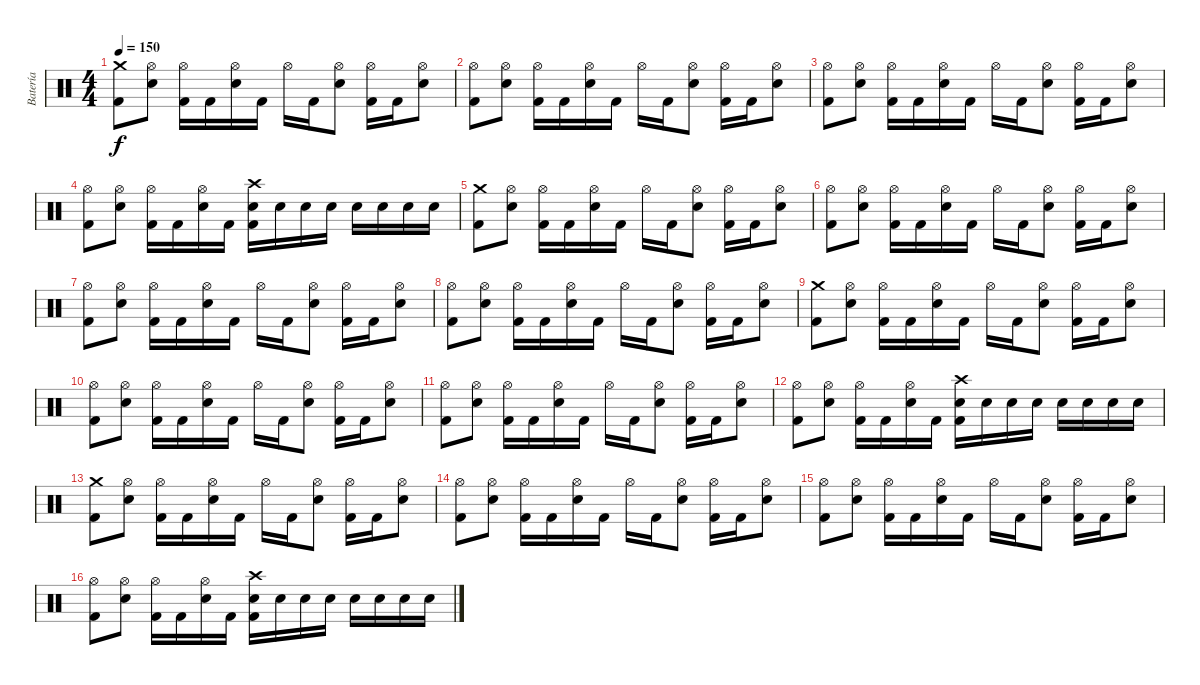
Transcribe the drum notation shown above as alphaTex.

\track ("Batería" "Batería") {instrument percussion}
\staff {score}
\articulation defaults
\ts (4 4)
\tempo 150
\clef neutral
\ks c
("Kick (hit) 2" "Crash medium (hit)").8{dy f} ("Snare (hit) 2" "Hi-Hat (open)").8 ("Kick (hit) 2" "Hi-Hat (open)").16 "Kick (hit) 2".16 ("Snare (hit) 2" "Hi-Hat (open)").16 "Kick (hit) 2".16 "Hi-Hat (open)".16 "Kick (hit) 2".16 ("Snare (hit) 2" "Hi-Hat (open)").8 ("Kick (hit) 2" "Hi-Hat (open)").16 "Kick (hit) 2".16 ("Snare (hit) 2" "Hi-Hat (open)").8 |
("Kick (hit) 2" "Hi-Hat (open)").8 ("Snare (hit) 2" "Hi-Hat (open)").8 ("Kick (hit) 2" "Hi-Hat (open)").16 "Kick (hit) 2".16 ("Snare (hit) 2" "Hi-Hat (open)").16 "Kick (hit) 2".16 "Hi-Hat (open)".16 "Kick (hit) 2".16 ("Snare (hit) 2" "Hi-Hat (open)").8 ("Kick (hit) 2" "Hi-Hat (open)").16 "Kick (hit) 2".16 ("Snare (hit) 2" "Hi-Hat (open)").8 |
("Kick (hit) 2" "Hi-Hat (open)").8 ("Snare (hit) 2" "Hi-Hat (open)").8 ("Kick (hit) 2" "Hi-Hat (open)").16 "Kick (hit) 2".16 ("Snare (hit) 2" "Hi-Hat (open)").16 "Kick (hit) 2".16 "Hi-Hat (open)".16 "Kick (hit) 2".16 ("Snare (hit) 2" "Hi-Hat (open)").8 ("Kick (hit) 2" "Hi-Hat (open)").16 "Kick (hit) 2".16 ("Snare (hit) 2" "Hi-Hat (open)").8 |
("Kick (hit) 2" "Hi-Hat (open)").8 ("Snare (hit) 2" "Hi-Hat (open)").8 ("Kick (hit) 2" "Hi-Hat (open)").16 "Kick (hit) 2".16 ("Snare (hit) 2" "Hi-Hat (open)").16 "Kick (hit) 2".16 ("Kick (hit) 2" "Snare (hit) 2" "Crash high (hit)").16 "Snare (hit) 2".16 "Snare (hit) 2".16 "Snare (hit) 2".16 "Snare (hit) 2".16 "Snare (hit) 2".16 "Snare (hit) 2".16 "Snare (hit) 2".16 |
("Kick (hit) 2" "Crash medium (hit)").8 ("Snare (hit) 2" "Hi-Hat (open)").8 ("Kick (hit) 2" "Hi-Hat (open)").16 "Kick (hit) 2".16 ("Snare (hit) 2" "Hi-Hat (open)").16 "Kick (hit) 2".16 "Hi-Hat (open)".16 "Kick (hit) 2".16 ("Snare (hit) 2" "Hi-Hat (open)").8 ("Kick (hit) 2" "Hi-Hat (open)").16 "Kick (hit) 2".16 ("Snare (hit) 2" "Hi-Hat (open)").8 |
("Kick (hit) 2" "Hi-Hat (open)").8 ("Snare (hit) 2" "Hi-Hat (open)").8 ("Kick (hit) 2" "Hi-Hat (open)").16 "Kick (hit) 2".16 ("Snare (hit) 2" "Hi-Hat (open)").16 "Kick (hit) 2".16 "Hi-Hat (open)".16 "Kick (hit) 2".16 ("Snare (hit) 2" "Hi-Hat (open)").8 ("Kick (hit) 2" "Hi-Hat (open)").16 "Kick (hit) 2".16 ("Snare (hit) 2" "Hi-Hat (open)").8 |
("Kick (hit) 2" "Hi-Hat (open)").8 ("Snare (hit) 2" "Hi-Hat (open)").8 ("Kick (hit) 2" "Hi-Hat (open)").16 "Kick (hit) 2".16 ("Snare (hit) 2" "Hi-Hat (open)").16 "Kick (hit) 2".16 "Hi-Hat (open)".16 "Kick (hit) 2".16 ("Snare (hit) 2" "Hi-Hat (open)").8 ("Kick (hit) 2" "Hi-Hat (open)").16 "Kick (hit) 2".16 ("Snare (hit) 2" "Hi-Hat (open)").8 |
("Kick (hit) 2" "Hi-Hat (open)").8 ("Snare (hit) 2" "Hi-Hat (open)").8 ("Kick (hit) 2" "Hi-Hat (open)").16 "Kick (hit) 2".16 ("Snare (hit) 2" "Hi-Hat (open)").16 "Kick (hit) 2".16 "Hi-Hat (open)".16 "Kick (hit) 2".16 ("Snare (hit) 2" "Hi-Hat (open)").8 ("Kick (hit) 2" "Hi-Hat (open)").16 "Kick (hit) 2".16 ("Snare (hit) 2" "Hi-Hat (open)").8 |
("Kick (hit) 2" "Crash medium (hit)").8 ("Snare (hit) 2" "Hi-Hat (open)").8 ("Kick (hit) 2" "Hi-Hat (open)").16 "Kick (hit) 2".16 ("Snare (hit) 2" "Hi-Hat (open)").16 "Kick (hit) 2".16 "Hi-Hat (open)".16 "Kick (hit) 2".16 ("Snare (hit) 2" "Hi-Hat (open)").8 ("Kick (hit) 2" "Hi-Hat (open)").16 "Kick (hit) 2".16 ("Snare (hit) 2" "Hi-Hat (open)").8 |
("Kick (hit) 2" "Hi-Hat (open)").8 ("Snare (hit) 2" "Hi-Hat (open)").8 ("Kick (hit) 2" "Hi-Hat (open)").16 "Kick (hit) 2".16 ("Snare (hit) 2" "Hi-Hat (open)").16 "Kick (hit) 2".16 "Hi-Hat (open)".16 "Kick (hit) 2".16 ("Snare (hit) 2" "Hi-Hat (open)").8 ("Kick (hit) 2" "Hi-Hat (open)").16 "Kick (hit) 2".16 ("Snare (hit) 2" "Hi-Hat (open)").8 |
("Kick (hit) 2" "Hi-Hat (open)").8 ("Snare (hit) 2" "Hi-Hat (open)").8 ("Kick (hit) 2" "Hi-Hat (open)").16 "Kick (hit) 2".16 ("Snare (hit) 2" "Hi-Hat (open)").16 "Kick (hit) 2".16 "Hi-Hat (open)".16 "Kick (hit) 2".16 ("Snare (hit) 2" "Hi-Hat (open)").8 ("Kick (hit) 2" "Hi-Hat (open)").16 "Kick (hit) 2".16 ("Snare (hit) 2" "Hi-Hat (open)").8 |
("Kick (hit) 2" "Hi-Hat (open)").8 ("Snare (hit) 2" "Hi-Hat (open)").8 ("Kick (hit) 2" "Hi-Hat (open)").16 "Kick (hit) 2".16 ("Snare (hit) 2" "Hi-Hat (open)").16 "Kick (hit) 2".16 ("Kick (hit) 2" "Snare (hit) 2" "Crash high (hit)").16 "Snare (hit) 2".16 "Snare (hit) 2".16 "Snare (hit) 2".16 "Snare (hit) 2".16 "Snare (hit) 2".16 "Snare (hit) 2".16 "Snare (hit) 2".16 |
("Kick (hit) 2" "Crash medium (hit)").8 ("Snare (hit) 2" "Hi-Hat (open)").8 ("Kick (hit) 2" "Hi-Hat (open)").16 "Kick (hit) 2".16 ("Snare (hit) 2" "Hi-Hat (open)").16 "Kick (hit) 2".16 "Hi-Hat (open)".16 "Kick (hit) 2".16 ("Snare (hit) 2" "Hi-Hat (open)").8 ("Kick (hit) 2" "Hi-Hat (open)").16 "Kick (hit) 2".16 ("Snare (hit) 2" "Hi-Hat (open)").8 |
("Kick (hit) 2" "Hi-Hat (open)").8 ("Snare (hit) 2" "Hi-Hat (open)").8 ("Kick (hit) 2" "Hi-Hat (open)").16 "Kick (hit) 2".16 ("Snare (hit) 2" "Hi-Hat (open)").16 "Kick (hit) 2".16 "Hi-Hat (open)".16 "Kick (hit) 2".16 ("Snare (hit) 2" "Hi-Hat (open)").8 ("Kick (hit) 2" "Hi-Hat (open)").16 "Kick (hit) 2".16 ("Snare (hit) 2" "Hi-Hat (open)").8 |
("Kick (hit) 2" "Hi-Hat (open)").8 ("Snare (hit) 2" "Hi-Hat (open)").8 ("Kick (hit) 2" "Hi-Hat (open)").16 "Kick (hit) 2".16 ("Snare (hit) 2" "Hi-Hat (open)").16 "Kick (hit) 2".16 "Hi-Hat (open)".16 "Kick (hit) 2".16 ("Snare (hit) 2" "Hi-Hat (open)").8 ("Kick (hit) 2" "Hi-Hat (open)").16 "Kick (hit) 2".16 ("Snare (hit) 2" "Hi-Hat (open)").8 |
("Kick (hit) 2" "Hi-Hat (open)").8 ("Snare (hit) 2" "Hi-Hat (open)").8 ("Kick (hit) 2" "Hi-Hat (open)").16 "Kick (hit) 2".16 ("Snare (hit) 2" "Hi-Hat (open)").16 "Kick (hit) 2".16 ("Kick (hit) 2" "Snare (hit) 2" "Crash high (hit)").16 "Snare (hit) 2".16 "Snare (hit) 2".16 "Snare (hit) 2".16 "Snare (hit) 2".16 "Snare (hit) 2".16 "Snare (hit) 2".16 "Snare (hit) 2".16
